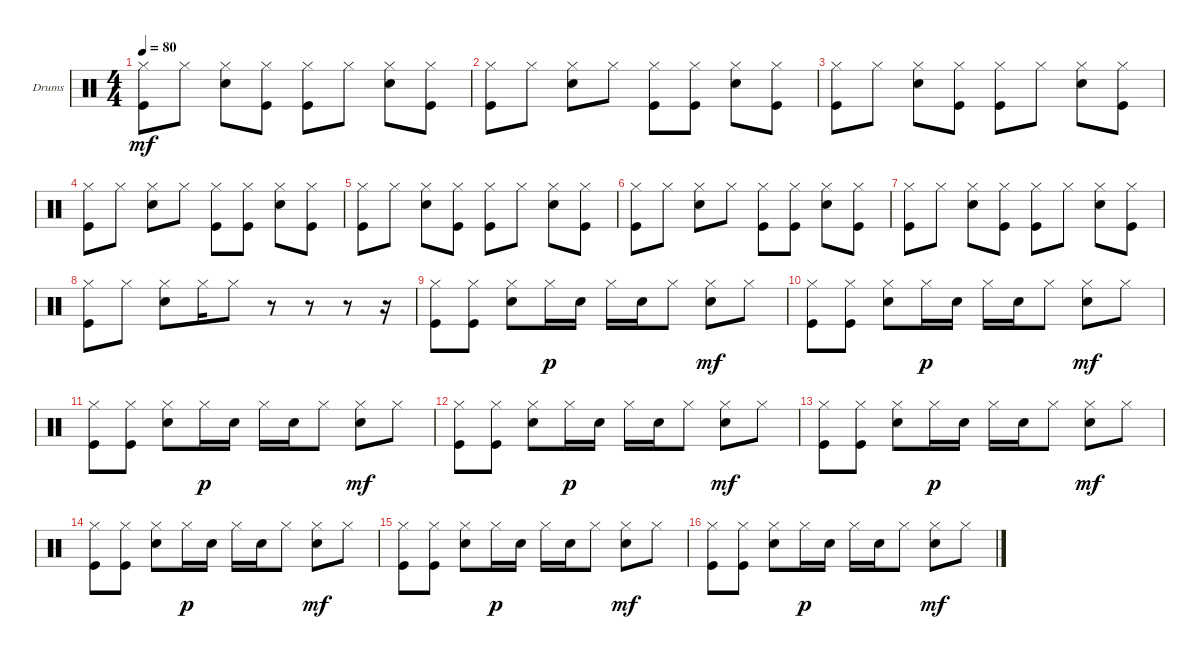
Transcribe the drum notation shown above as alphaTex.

\defaultSystemsLayout 4
\bracketExtendMode groupsimilarinstruments
\firstSystemTrackNameOrientation horizontal
\otherSystemsTrackNameOrientation horizontal
\track ("Drumkit" "Drums") {instrument percussion}
\staff {score}
\articulation defaults
\ts (4 4)
\tempo 80
\clef neutral
\ks c
("Hi-Hat (closed)" "Kick (hit)").8{dy mf} "Hi-Hat (closed)".8 ("Hi-Hat (closed)" "Snare (hit) 2").8 ("Hi-Hat (closed)" "Kick (hit)").8 ("Hi-Hat (closed)" "Kick (hit)").8 "Hi-Hat (closed)".8 ("Hi-Hat (closed)" "Snare (hit) 2").8 ("Hi-Hat (closed)" "Kick (hit)").8 |
("Hi-Hat (closed)" "Kick (hit)").8 "Hi-Hat (closed)".8 ("Hi-Hat (closed)" "Snare (hit) 2").8 "Hi-Hat (closed)".8 ("Hi-Hat (closed)" "Kick (hit)").8 ("Hi-Hat (closed)" "Kick (hit)").8 ("Hi-Hat (closed)" "Snare (hit) 2").8 ("Hi-Hat (closed)" "Kick (hit)").8 |
("Hi-Hat (closed)" "Kick (hit)").8 "Hi-Hat (closed)".8 ("Hi-Hat (closed)" "Snare (hit) 2").8 ("Hi-Hat (closed)" "Kick (hit)").8 ("Hi-Hat (closed)" "Kick (hit)").8 "Hi-Hat (closed)".8 ("Hi-Hat (closed)" "Snare (hit) 2").8 ("Hi-Hat (closed)" "Kick (hit)").8 |
("Hi-Hat (closed)" "Kick (hit)").8 "Hi-Hat (closed)".8 ("Hi-Hat (closed)" "Snare (hit) 2").8 "Hi-Hat (closed)".8 ("Hi-Hat (closed)" "Kick (hit)").8 ("Hi-Hat (closed)" "Kick (hit)").8 ("Hi-Hat (closed)" "Snare (hit) 2").8 ("Hi-Hat (closed)" "Kick (hit)").8 |
("Hi-Hat (closed)" "Kick (hit)").8 "Hi-Hat (closed)".8 ("Hi-Hat (closed)" "Snare (hit) 2").8 ("Hi-Hat (closed)" "Kick (hit)").8 ("Hi-Hat (closed)" "Kick (hit)").8 "Hi-Hat (closed)".8 ("Hi-Hat (closed)" "Snare (hit) 2").8 ("Hi-Hat (closed)" "Kick (hit)").8 |
("Hi-Hat (closed)" "Kick (hit)").8 "Hi-Hat (closed)".8 ("Hi-Hat (closed)" "Snare (hit) 2").8 "Hi-Hat (closed)".8 ("Hi-Hat (closed)" "Kick (hit)").8 ("Hi-Hat (closed)" "Kick (hit)").8 ("Hi-Hat (closed)" "Snare (hit) 2").8 ("Hi-Hat (closed)" "Kick (hit)").8 |
("Hi-Hat (closed)" "Kick (hit)").8 "Hi-Hat (closed)".8 ("Hi-Hat (closed)" "Snare (hit) 2").8 ("Hi-Hat (closed)" "Kick (hit)").8 ("Hi-Hat (closed)" "Kick (hit)").8 "Hi-Hat (closed)".8 ("Hi-Hat (closed)" "Snare (hit) 2").8 ("Hi-Hat (closed)" "Kick (hit)").8 |
("Hi-Hat (closed)" "Kick (hit)").8 "Hi-Hat (closed)".8 ("Hi-Hat (closed)" "Snare (hit) 2").8 "Hi-Hat (closed)".16 "Hi-Hat (closed)".8 r.8 r.8 r.8 r.16 |
("Kick (hit)" "Hi-Hat (closed)").8 ("Kick (hit)" "Hi-Hat (closed)").8 ("Snare (hit) 2" "Hi-Hat (closed)").8 "Hi-Hat (closed)".16{dy p} "Snare (hit) 2".16 "Hi-Hat (closed)".16 "Snare (hit) 2".16 "Hi-Hat (closed)".8 ("Hi-Hat (closed)" "Snare (hit) 2").8{dy mf} "Hi-Hat (closed)".8 |
("Kick (hit)" "Hi-Hat (closed)").8 ("Kick (hit)" "Hi-Hat (closed)").8 ("Snare (hit) 2" "Hi-Hat (closed)").8 "Hi-Hat (closed)".16{dy p} "Snare (hit) 2".16 "Hi-Hat (closed)".16 "Snare (hit) 2".16 "Hi-Hat (closed)".8 ("Hi-Hat (closed)" "Snare (hit) 2").8{dy mf} "Hi-Hat (closed)".8 |
("Kick (hit)" "Hi-Hat (closed)").8 ("Kick (hit)" "Hi-Hat (closed)").8 ("Snare (hit) 2" "Hi-Hat (closed)").8 "Hi-Hat (closed)".16{dy p} "Snare (hit) 2".16 "Hi-Hat (closed)".16 "Snare (hit) 2".16 "Hi-Hat (closed)".8 ("Hi-Hat (closed)" "Snare (hit) 2").8{dy mf} "Hi-Hat (closed)".8 |
("Kick (hit)" "Hi-Hat (closed)").8 ("Kick (hit)" "Hi-Hat (closed)").8 ("Snare (hit) 2" "Hi-Hat (closed)").8 "Hi-Hat (closed)".16{dy p} "Snare (hit) 2".16 "Hi-Hat (closed)".16 "Snare (hit) 2".16 "Hi-Hat (closed)".8 ("Hi-Hat (closed)" "Snare (hit) 2").8{dy mf} "Hi-Hat (closed)".8 |
("Kick (hit)" "Hi-Hat (closed)").8 ("Kick (hit)" "Hi-Hat (closed)").8 ("Snare (hit) 2" "Hi-Hat (closed)").8 "Hi-Hat (closed)".16{dy p} "Snare (hit) 2".16 "Hi-Hat (closed)".16 "Snare (hit) 2".16 "Hi-Hat (closed)".8 ("Hi-Hat (closed)" "Snare (hit) 2").8{dy mf} "Hi-Hat (closed)".8 |
("Kick (hit)" "Hi-Hat (closed)").8 ("Kick (hit)" "Hi-Hat (closed)").8 ("Snare (hit) 2" "Hi-Hat (closed)").8 "Hi-Hat (closed)".16{dy p} "Snare (hit) 2".16 "Hi-Hat (closed)".16 "Snare (hit) 2".16 "Hi-Hat (closed)".8 ("Hi-Hat (closed)" "Snare (hit) 2").8{dy mf} "Hi-Hat (closed)".8 |
("Kick (hit)" "Hi-Hat (closed)").8 ("Kick (hit)" "Hi-Hat (closed)").8 ("Snare (hit) 2" "Hi-Hat (closed)").8 "Hi-Hat (closed)".16{dy p} "Snare (hit) 2".16 "Hi-Hat (closed)".16 "Snare (hit) 2".16 "Hi-Hat (closed)".8 ("Hi-Hat (closed)" "Snare (hit) 2").8{dy mf} "Hi-Hat (closed)".8 |
("Kick (hit)" "Hi-Hat (closed)").8 ("Kick (hit)" "Hi-Hat (closed)").8 ("Snare (hit) 2" "Hi-Hat (closed)").8 "Hi-Hat (closed)".16{dy p} "Snare (hit) 2".16 "Hi-Hat (closed)".16 "Snare (hit) 2".16 "Hi-Hat (closed)".8 ("Hi-Hat (closed)" "Snare (hit) 2").8{dy mf} "Hi-Hat (closed)".8
